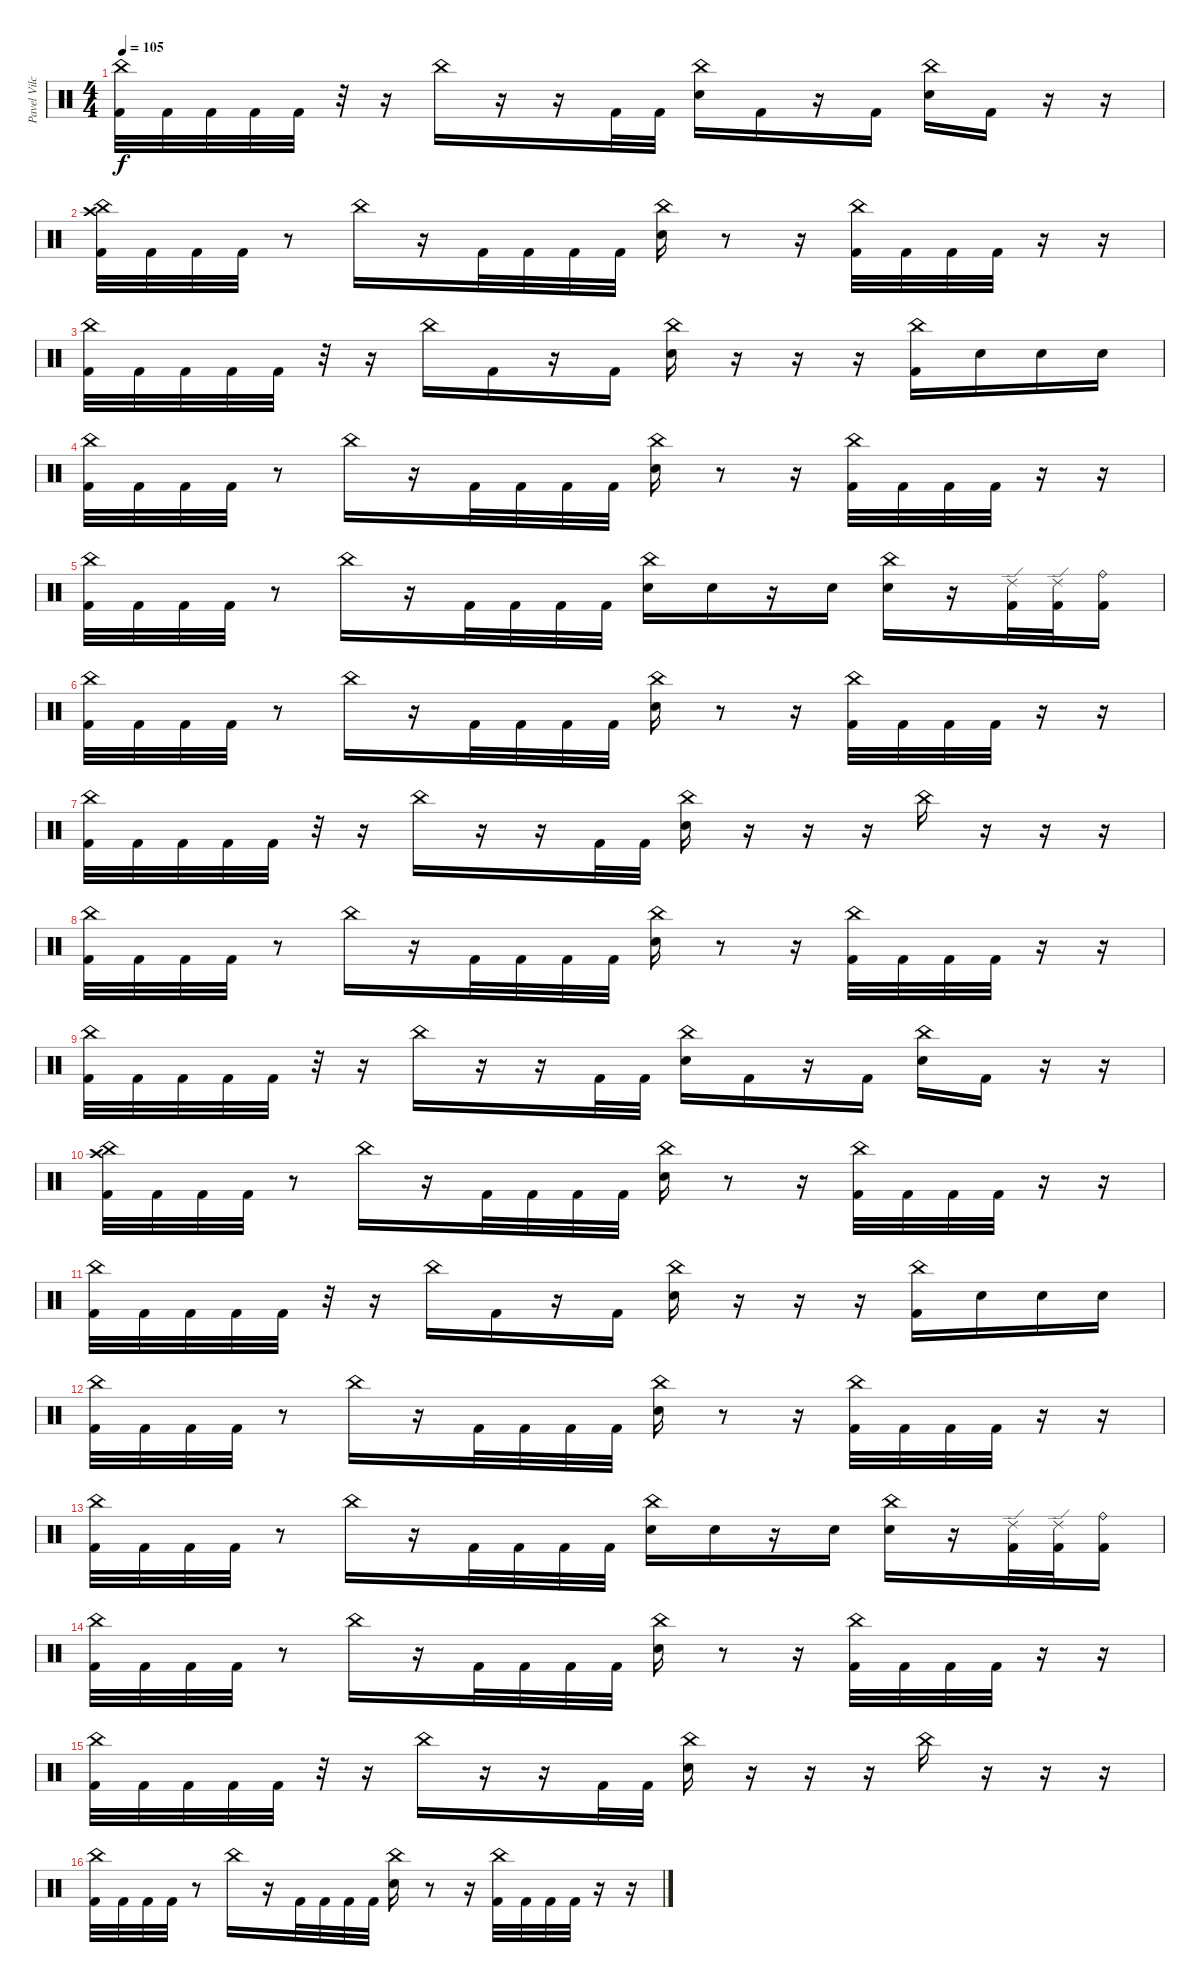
\track ("Pavel Vilchytski" "Pavel Vilc") {instrument percussion}
\staff {score}
\articulation defaults
\ts (4 4)
\tempo 105
\clef neutral
\ks c
("China (hit)" "Kick (hit) 2").32{dy f} "Kick (hit) 2".32 "Kick (hit) 2".32 "Kick (hit) 2".32 "Kick (hit) 2".32 r.32 r.16 "China (hit)".16 r.16 r.16 "Kick (hit) 2".32 "Kick (hit) 2".32 ("China (hit)" "Electric Snare (hit)").16 "Kick (hit) 2".16 r.16 "Kick (hit) 2".16 ("China (hit)" "Electric Snare (hit)").16 "Kick (hit) 2".16 r.16 r.16 |
("China (hit)" "Crash high (hit)" "Kick (hit) 2").32 "Kick (hit) 2".32 "Kick (hit) 2".32 "Kick (hit) 2".32 r.8 "China (hit)".16 r.16 "Kick (hit) 2".32 "Kick (hit) 2".32 "Kick (hit) 2".32 "Kick (hit) 2".32 ("China (hit)" "Electric Snare (hit)").16 r.8 r.16 ("China (hit)" "Kick (hit) 2").32 "Kick (hit) 2".32 "Kick (hit) 2".32 "Kick (hit) 2".32 r.16 r.16 |
("China (hit)" "Kick (hit) 2").32 "Kick (hit) 2".32 "Kick (hit) 2".32 "Kick (hit) 2".32 "Kick (hit) 2".32 r.32 r.16 "China (hit)".16 "Kick (hit) 2".16 r.16 "Kick (hit) 2".16 ("China (hit)" "Electric Snare (hit)").16 r.16 r.16 r.16 ("China (hit)" "Kick (hit) 2").16 "Electric Snare (hit)".16 "Electric Snare (hit)".16 "Electric Snare (hit)".16 |
("China (hit)" "Kick (hit) 2").32 "Kick (hit) 2".32 "Kick (hit) 2".32 "Kick (hit) 2".32 r.8 "China (hit)".16 r.16 "Kick (hit) 2".32 "Kick (hit) 2".32 "Kick (hit) 2".32 "Kick (hit) 2".32 ("China (hit)" "Electric Snare (hit)").16 r.8 r.16 ("China (hit)" "Kick (hit) 2").32 "Kick (hit) 2".32 "Kick (hit) 2".32 "Kick (hit) 2".32 r.16 r.16 |
("China (hit)" "Kick (hit) 2").32 "Kick (hit) 2".32 "Kick (hit) 2".32 "Kick (hit) 2".32 r.8 "China (hit)".16 r.16 "Kick (hit) 2".32 "Kick (hit) 2".32 "Kick (hit) 2".32 "Kick (hit) 2".32 ("China (hit)" "Electric Snare (hit)").16 "Electric Snare (hit)".16 r.16 "Electric Snare (hit)".16 ("China (hit)" "Electric Snare (hit)").16 r.16 ("Ride (edge) 2" "Kick (hit) 2").32 ("Ride (edge) 2" "Kick (hit) 2").32 ("Ride (bell)" "Kick (hit) 2").16 |
("China (hit)" "Kick (hit) 2").32 "Kick (hit) 2".32 "Kick (hit) 2".32 "Kick (hit) 2".32 r.8 "China (hit)".16 r.16 "Kick (hit) 2".32 "Kick (hit) 2".32 "Kick (hit) 2".32 "Kick (hit) 2".32 ("China (hit)" "Electric Snare (hit)").16 r.8 r.16 ("China (hit)" "Kick (hit) 2").32 "Kick (hit) 2".32 "Kick (hit) 2".32 "Kick (hit) 2".32 r.16 r.16 |
("China (hit)" "Kick (hit) 2").32 "Kick (hit) 2".32 "Kick (hit) 2".32 "Kick (hit) 2".32 "Kick (hit) 2".32 r.32 r.16 "China (hit)".16 r.16 r.16 "Kick (hit) 2".32 "Kick (hit) 2".32 ("China (hit)" "Electric Snare (hit)").16 r.16 r.16 r.16 "China (hit)".16 r.16 r.16 r.16 |
("China (hit)" "Kick (hit) 2").32 "Kick (hit) 2".32 "Kick (hit) 2".32 "Kick (hit) 2".32 r.8 "China (hit)".16 r.16 "Kick (hit) 2".32 "Kick (hit) 2".32 "Kick (hit) 2".32 "Kick (hit) 2".32 ("China (hit)" "Electric Snare (hit)").16 r.8 r.16 ("China (hit)" "Kick (hit) 2").32 "Kick (hit) 2".32 "Kick (hit) 2".32 "Kick (hit) 2".32 r.16 r.16 |
("China (hit)" "Kick (hit) 2").32 "Kick (hit) 2".32 "Kick (hit) 2".32 "Kick (hit) 2".32 "Kick (hit) 2".32 r.32 r.16 "China (hit)".16 r.16 r.16 "Kick (hit) 2".32 "Kick (hit) 2".32 ("China (hit)" "Electric Snare (hit)").16 "Kick (hit) 2".16 r.16 "Kick (hit) 2".16 ("China (hit)" "Electric Snare (hit)").16 "Kick (hit) 2".16 r.16 r.16 |
("China (hit)" "Crash high (hit)" "Kick (hit) 2").32 "Kick (hit) 2".32 "Kick (hit) 2".32 "Kick (hit) 2".32 r.8 "China (hit)".16 r.16 "Kick (hit) 2".32 "Kick (hit) 2".32 "Kick (hit) 2".32 "Kick (hit) 2".32 ("China (hit)" "Electric Snare (hit)").16 r.8 r.16 ("China (hit)" "Kick (hit) 2").32 "Kick (hit) 2".32 "Kick (hit) 2".32 "Kick (hit) 2".32 r.16 r.16 |
("China (hit)" "Kick (hit) 2").32 "Kick (hit) 2".32 "Kick (hit) 2".32 "Kick (hit) 2".32 "Kick (hit) 2".32 r.32 r.16 "China (hit)".16 "Kick (hit) 2".16 r.16 "Kick (hit) 2".16 ("China (hit)" "Electric Snare (hit)").16 r.16 r.16 r.16 ("China (hit)" "Kick (hit) 2").16 "Electric Snare (hit)".16 "Electric Snare (hit)".16 "Electric Snare (hit)".16 |
("China (hit)" "Kick (hit) 2").32 "Kick (hit) 2".32 "Kick (hit) 2".32 "Kick (hit) 2".32 r.8 "China (hit)".16 r.16 "Kick (hit) 2".32 "Kick (hit) 2".32 "Kick (hit) 2".32 "Kick (hit) 2".32 ("China (hit)" "Electric Snare (hit)").16 r.8 r.16 ("China (hit)" "Kick (hit) 2").32 "Kick (hit) 2".32 "Kick (hit) 2".32 "Kick (hit) 2".32 r.16 r.16 |
("China (hit)" "Kick (hit) 2").32 "Kick (hit) 2".32 "Kick (hit) 2".32 "Kick (hit) 2".32 r.8 "China (hit)".16 r.16 "Kick (hit) 2".32 "Kick (hit) 2".32 "Kick (hit) 2".32 "Kick (hit) 2".32 ("China (hit)" "Electric Snare (hit)").16 "Electric Snare (hit)".16 r.16 "Electric Snare (hit)".16 ("China (hit)" "Electric Snare (hit)").16 r.16 ("Ride (edge) 2" "Kick (hit) 2").32 ("Ride (edge) 2" "Kick (hit) 2").32 ("Ride (bell)" "Kick (hit) 2").16 |
("China (hit)" "Kick (hit) 2").32 "Kick (hit) 2".32 "Kick (hit) 2".32 "Kick (hit) 2".32 r.8 "China (hit)".16 r.16 "Kick (hit) 2".32 "Kick (hit) 2".32 "Kick (hit) 2".32 "Kick (hit) 2".32 ("China (hit)" "Electric Snare (hit)").16 r.8 r.16 ("China (hit)" "Kick (hit) 2").32 "Kick (hit) 2".32 "Kick (hit) 2".32 "Kick (hit) 2".32 r.16 r.16 |
("China (hit)" "Kick (hit) 2").32 "Kick (hit) 2".32 "Kick (hit) 2".32 "Kick (hit) 2".32 "Kick (hit) 2".32 r.32 r.16 "China (hit)".16 r.16 r.16 "Kick (hit) 2".32 "Kick (hit) 2".32 ("China (hit)" "Electric Snare (hit)").16 r.16 r.16 r.16 "China (hit)".16 r.16 r.16 r.16 |
("China (hit)" "Kick (hit) 2").32 "Kick (hit) 2".32 "Kick (hit) 2".32 "Kick (hit) 2".32 r.8 "China (hit)".16 r.16 "Kick (hit) 2".32 "Kick (hit) 2".32 "Kick (hit) 2".32 "Kick (hit) 2".32 ("China (hit)" "Electric Snare (hit)").16 r.8 r.16 ("China (hit)" "Kick (hit) 2").32 "Kick (hit) 2".32 "Kick (hit) 2".32 "Kick (hit) 2".32 r.16 r.16
